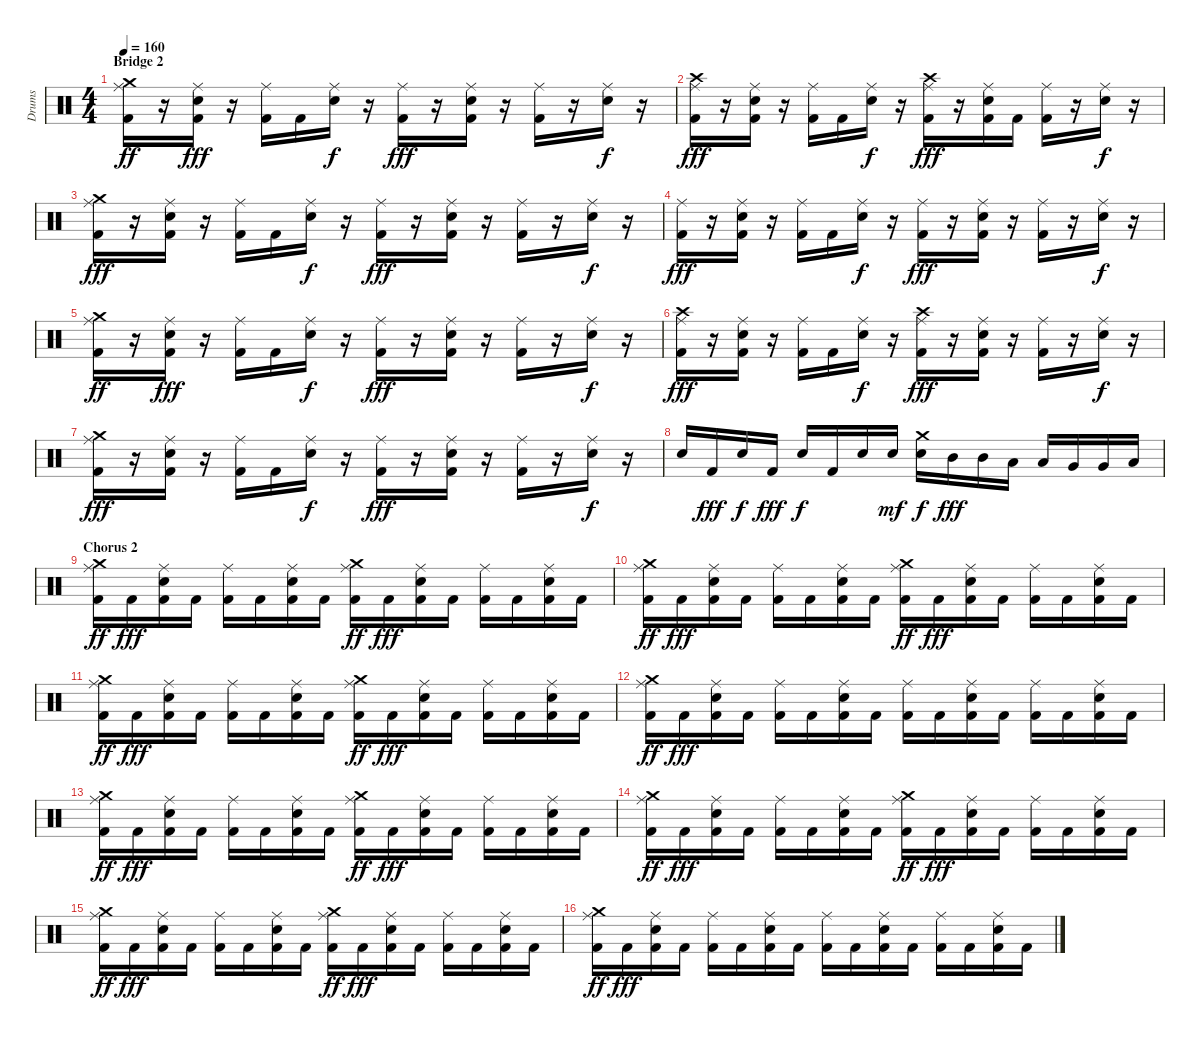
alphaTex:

\track ("Drums" "Drums") {instrument percussion}
\staff {score}
\articulation defaults
\ts (4 4)
\section ("" "Bridge 2")
\tempo 160
\clef neutral
\ks c
("Kick (hit) 2" "Ride (middle)" "Crash medium (hit)").16{dy ff} r.16 ("Kick (hit) 2" "Ride (middle)" "Snare (hit) 2").16{dy fff} r.16 ("Kick (hit) 2" "Ride (middle)").16 "Kick (hit) 2".16 ("Ride (middle)" "Snare (hit) 2").16{dy f} r.16 ("Kick (hit) 2" "Ride (middle)").16{dy fff} r.16 ("Kick (hit) 2" "Ride (middle)" "Snare (hit) 2").16 r.16 ("Kick (hit) 2" "Ride (middle)").16 r.16 ("Ride (middle)" "Snare (hit) 2").16{dy f} r.16 |
("Kick (hit) 2" "Ride (middle)" "Crash high (hit)").16{dy fff} r.16 ("Kick (hit) 2" "Ride (middle)" "Snare (hit) 2").16 r.16 ("Kick (hit) 2" "Ride (middle)").16 "Kick (hit) 2".16 ("Ride (middle)" "Snare (hit) 2").16{dy f} r.16 ("Kick (hit) 2" "Ride (middle)" "Crash high (hit)").16{dy fff} r.16 ("Kick (hit) 2" "Ride (middle)" "Snare (hit) 2").16 "Kick (hit) 2".16 ("Kick (hit) 2" "Ride (middle)").16 r.16 ("Ride (middle)" "Snare (hit) 2").16{dy f} r.16 |
("Kick (hit) 2" "Ride (middle)" "Crash medium (hit)").16{dy fff} r.16 ("Kick (hit) 2" "Ride (middle)" "Snare (hit) 2").16 r.16 ("Kick (hit) 2" "Ride (middle)").16 "Kick (hit) 2".16 ("Ride (middle)" "Snare (hit) 2").16{dy f} r.16 ("Kick (hit) 2" "Ride (middle)").16{dy fff} r.16 ("Kick (hit) 2" "Ride (middle)" "Snare (hit) 2").16 r.16 ("Kick (hit) 2" "Ride (middle)").16 r.16 ("Ride (middle)" "Snare (hit) 2").16{dy f} r.16 |
("Kick (hit) 2" "Ride (middle)").16{dy fff} r.16 ("Kick (hit) 2" "Ride (middle)" "Snare (hit) 2").16 r.16 ("Kick (hit) 2" "Ride (middle)").16 "Kick (hit) 2".16 ("Ride (middle)" "Snare (hit) 2").16{dy f} r.16 ("Kick (hit) 2" "Ride (middle)").16{dy fff} r.16 ("Kick (hit) 2" "Ride (middle)" "Snare (hit) 2").16 r.16 ("Kick (hit) 2" "Ride (middle)").16 r.16 ("Ride (middle)" "Snare (hit) 2").16{dy f} r.16 |
("Kick (hit) 2" "Ride (middle)" "Crash medium (hit)").16{dy ff} r.16 ("Kick (hit) 2" "Ride (middle)" "Snare (hit) 2").16{dy fff} r.16 ("Kick (hit) 2" "Ride (middle)").16 "Kick (hit) 2".16 ("Ride (middle)" "Snare (hit) 2").16{dy f} r.16 ("Kick (hit) 2" "Ride (middle)").16{dy fff} r.16 ("Kick (hit) 2" "Ride (middle)" "Snare (hit) 2").16 r.16 ("Kick (hit) 2" "Ride (middle)").16 r.16 ("Ride (middle)" "Snare (hit) 2").16{dy f} r.16 |
("Kick (hit) 2" "Ride (middle)" "Crash high (hit)").16{dy fff} r.16 ("Kick (hit) 2" "Ride (middle)" "Snare (hit) 2").16 r.16 ("Kick (hit) 2" "Ride (middle)").16 "Kick (hit) 2".16 ("Ride (middle)" "Snare (hit) 2").16{dy f} r.16 ("Kick (hit) 2" "Ride (middle)" "Crash high (hit)").16{dy fff} r.16 ("Kick (hit) 2" "Ride (middle)" "Snare (hit) 2").16 r.16 ("Kick (hit) 2" "Ride (middle)").16 r.16 ("Ride (middle)" "Snare (hit) 2").16{dy f} r.16 |
("Kick (hit) 2" "Ride (middle)" "Crash medium (hit)").16{dy fff} r.16 ("Kick (hit) 2" "Ride (middle)" "Snare (hit) 2").16 r.16 ("Kick (hit) 2" "Ride (middle)").16 "Kick (hit) 2".16 ("Ride (middle)" "Snare (hit) 2").16{dy f} r.16 ("Kick (hit) 2" "Ride (middle)").16{dy fff} r.16 ("Kick (hit) 2" "Ride (middle)" "Snare (hit) 2").16 r.16 ("Kick (hit) 2" "Ride (middle)").16 r.16 ("Ride (middle)" "Snare (hit) 2").16{dy f} r.16 |
"Snare (hit) 2".16 "Kick (hit) 2".16{dy fff} "Snare (hit) 2".16{dy f} "Kick (hit) 2".16{dy fff} "Snare (hit) 2".16{dy f} "Kick (hit) 2".16 "Snare (hit) 2".16 "Snare (hit) 2".16{dy mf} ("Snare (hit) 2" "Crash medium (hit)").16{dy f} "Mid Tom (hit)".16{dy fff} "Mid Tom (hit)".16 "Low Tom (hit)".16 "Low Tom (hit)".16 "Very Low Tom (hit)".16 "Very Low Tom (hit)".16 "Low Floor Tom (hit)".16 |
\section ("" "Chorus 2")
("Kick (hit) 2" "Ride (middle)" "Crash medium (hit)").16{dy ff} "Kick (hit) 2".16{dy fff} ("Kick (hit) 2" "Ride (middle)" "Snare (hit) 2").16 "Kick (hit) 2".16 ("Kick (hit) 2" "Ride (middle)").16 "Kick (hit) 2".16 ("Kick (hit) 2" "Ride (middle)" "Snare (hit) 2").16 "Kick (hit) 2".16 ("Kick (hit) 2" "Ride (middle)" "Crash medium (hit)").16{dy ff} "Kick (hit) 2".16{dy fff} ("Kick (hit) 2" "Ride (middle)" "Snare (hit) 2").16 "Kick (hit) 2".16 ("Kick (hit) 2" "Ride (middle)").16 "Kick (hit) 2".16 ("Kick (hit) 2" "Ride (middle)" "Snare (hit) 2").16 "Kick (hit) 2".16 |
("Kick (hit) 2" "Ride (middle)" "Crash medium (hit)").16{dy ff} "Kick (hit) 2".16{dy fff} ("Kick (hit) 2" "Ride (middle)" "Snare (hit) 2").16 "Kick (hit) 2".16 ("Kick (hit) 2" "Ride (middle)").16 "Kick (hit) 2".16 ("Kick (hit) 2" "Ride (middle)" "Snare (hit) 2").16 "Kick (hit) 2".16 ("Kick (hit) 2" "Ride (middle)" "Crash medium (hit)").16{dy ff} "Kick (hit) 2".16{dy fff} ("Kick (hit) 2" "Ride (middle)" "Snare (hit) 2").16 "Kick (hit) 2".16 ("Kick (hit) 2" "Ride (middle)").16 "Kick (hit) 2".16 ("Kick (hit) 2" "Ride (middle)" "Snare (hit) 2").16 "Kick (hit) 2".16 |
("Kick (hit) 2" "Ride (middle)" "Crash medium (hit)").16{dy ff} "Kick (hit) 2".16{dy fff} ("Kick (hit) 2" "Ride (middle)" "Snare (hit) 2").16 "Kick (hit) 2".16 ("Kick (hit) 2" "Ride (middle)").16 "Kick (hit) 2".16 ("Kick (hit) 2" "Ride (middle)" "Snare (hit) 2").16 "Kick (hit) 2".16 ("Kick (hit) 2" "Ride (middle)" "Crash medium (hit)").16{dy ff} "Kick (hit) 2".16{dy fff} ("Kick (hit) 2" "Ride (middle)" "Snare (hit) 2").16 "Kick (hit) 2".16 ("Kick (hit) 2" "Ride (middle)").16 "Kick (hit) 2".16 ("Kick (hit) 2" "Ride (middle)" "Snare (hit) 2").16 "Kick (hit) 2".16 |
("Kick (hit) 2" "Ride (middle)" "Crash medium (hit)").16{dy ff} "Kick (hit) 2".16{dy fff} ("Kick (hit) 2" "Ride (middle)" "Snare (hit) 2").16 "Kick (hit) 2".16 ("Kick (hit) 2" "Ride (middle)").16 "Kick (hit) 2".16 ("Kick (hit) 2" "Ride (middle)" "Snare (hit) 2").16 "Kick (hit) 2".16 ("Kick (hit) 2" "Ride (middle)").16 "Kick (hit) 2".16 ("Kick (hit) 2" "Ride (middle)" "Snare (hit) 2").16 "Kick (hit) 2".16 ("Kick (hit) 2" "Ride (middle)").16 "Kick (hit) 2".16 ("Kick (hit) 2" "Ride (middle)" "Snare (hit) 2").16 "Kick (hit) 2".16 |
("Kick (hit) 2" "Ride (middle)" "Crash medium (hit)").16{dy ff} "Kick (hit) 2".16{dy fff} ("Kick (hit) 2" "Ride (middle)" "Snare (hit) 2").16 "Kick (hit) 2".16 ("Kick (hit) 2" "Ride (middle)").16 "Kick (hit) 2".16 ("Kick (hit) 2" "Ride (middle)" "Snare (hit) 2").16 "Kick (hit) 2".16 ("Kick (hit) 2" "Ride (middle)" "Crash medium (hit)").16{dy ff} "Kick (hit) 2".16{dy fff} ("Kick (hit) 2" "Ride (middle)" "Snare (hit) 2").16 "Kick (hit) 2".16 ("Kick (hit) 2" "Ride (middle)").16 "Kick (hit) 2".16 ("Kick (hit) 2" "Ride (middle)" "Snare (hit) 2").16 "Kick (hit) 2".16 |
("Kick (hit) 2" "Ride (middle)" "Crash medium (hit)").16{dy ff} "Kick (hit) 2".16{dy fff} ("Kick (hit) 2" "Ride (middle)" "Snare (hit) 2").16 "Kick (hit) 2".16 ("Kick (hit) 2" "Ride (middle)").16 "Kick (hit) 2".16 ("Kick (hit) 2" "Ride (middle)" "Snare (hit) 2").16 "Kick (hit) 2".16 ("Kick (hit) 2" "Ride (middle)" "Crash medium (hit)").16{dy ff} "Kick (hit) 2".16{dy fff} ("Kick (hit) 2" "Ride (middle)" "Snare (hit) 2").16 "Kick (hit) 2".16 ("Kick (hit) 2" "Ride (middle)").16 "Kick (hit) 2".16 ("Kick (hit) 2" "Ride (middle)" "Snare (hit) 2").16 "Kick (hit) 2".16 |
("Kick (hit) 2" "Ride (middle)" "Crash medium (hit)").16{dy ff} "Kick (hit) 2".16{dy fff} ("Kick (hit) 2" "Ride (middle)" "Snare (hit) 2").16 "Kick (hit) 2".16 ("Kick (hit) 2" "Ride (middle)").16 "Kick (hit) 2".16 ("Kick (hit) 2" "Ride (middle)" "Snare (hit) 2").16 "Kick (hit) 2".16 ("Kick (hit) 2" "Ride (middle)" "Crash medium (hit)").16{dy ff} "Kick (hit) 2".16{dy fff} ("Kick (hit) 2" "Ride (middle)" "Snare (hit) 2").16 "Kick (hit) 2".16 ("Kick (hit) 2" "Ride (middle)").16 "Kick (hit) 2".16 ("Kick (hit) 2" "Ride (middle)" "Snare (hit) 2").16 "Kick (hit) 2".16 |
("Kick (hit) 2" "Ride (middle)" "Crash medium (hit)").16{dy ff} "Kick (hit) 2".16{dy fff} ("Kick (hit) 2" "Ride (middle)" "Snare (hit) 2").16 "Kick (hit) 2".16 ("Kick (hit) 2" "Ride (middle)").16 "Kick (hit) 2".16 ("Kick (hit) 2" "Ride (middle)" "Snare (hit) 2").16 "Kick (hit) 2".16 ("Kick (hit) 2" "Ride (middle)").16 "Kick (hit) 2".16 ("Kick (hit) 2" "Ride (middle)" "Snare (hit) 2").16 "Kick (hit) 2".16 ("Kick (hit) 2" "Ride (middle)").16 "Kick (hit) 2".16 ("Kick (hit) 2" "Ride (middle)" "Snare (hit) 2").16 "Kick (hit) 2".16
